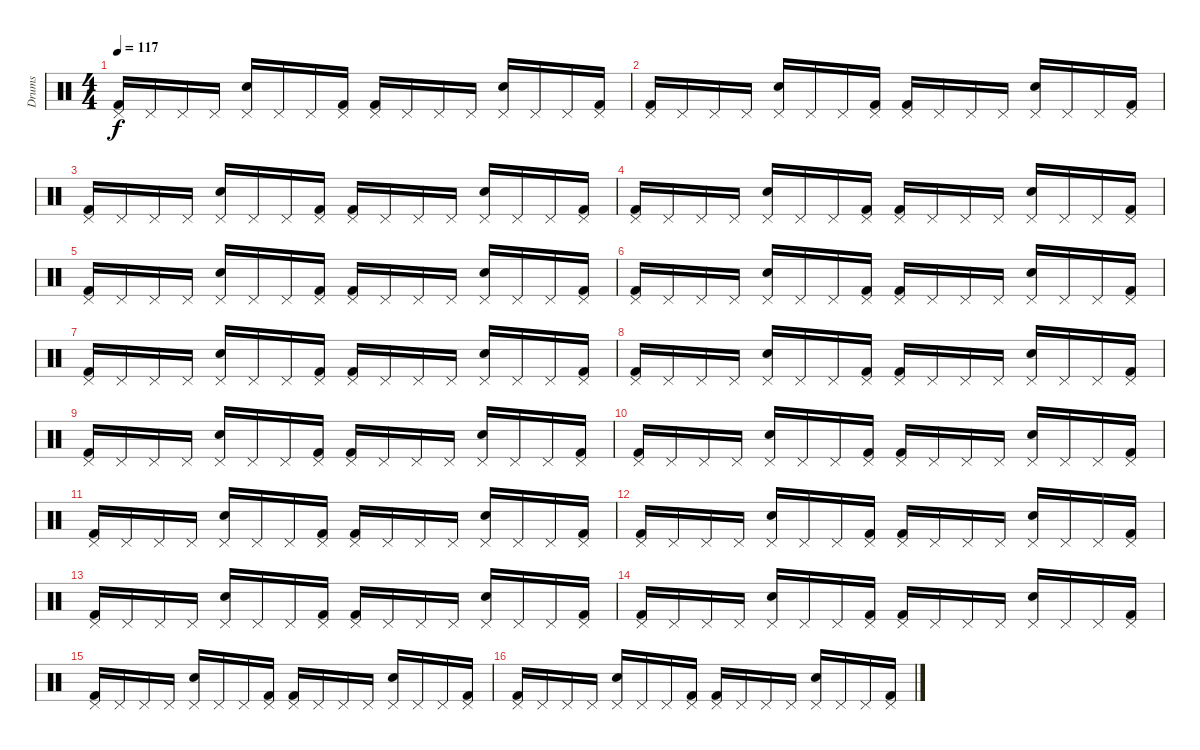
\track ("Drums" "Drums") {instrument percussion}
\staff {score}
\articulation defaults
\ts (4 4)
\tempo 117
\clef neutral
\ks c
("Kick (hit) 2" "Pedal Hi-Hat (hit)").16{dy f} "Pedal Hi-Hat (hit)".16 "Pedal Hi-Hat (hit)".16 "Pedal Hi-Hat (hit)".16 ("Snare (hit) 2" "Pedal Hi-Hat (hit)").16 "Pedal Hi-Hat (hit)".16 "Pedal Hi-Hat (hit)".16 ("Kick (hit) 2" "Pedal Hi-Hat (hit)").16 ("Kick (hit) 2" "Pedal Hi-Hat (hit)").16 "Pedal Hi-Hat (hit)".16 "Pedal Hi-Hat (hit)".16 "Pedal Hi-Hat (hit)".16 ("Snare (hit) 2" "Pedal Hi-Hat (hit)").16 "Pedal Hi-Hat (hit)".16 "Pedal Hi-Hat (hit)".16 ("Kick (hit) 2" "Pedal Hi-Hat (hit)").16 |
("Kick (hit) 2" "Pedal Hi-Hat (hit)").16 "Pedal Hi-Hat (hit)".16 "Pedal Hi-Hat (hit)".16 "Pedal Hi-Hat (hit)".16 ("Snare (hit) 2" "Pedal Hi-Hat (hit)").16 "Pedal Hi-Hat (hit)".16 "Pedal Hi-Hat (hit)".16 ("Kick (hit) 2" "Pedal Hi-Hat (hit)").16 ("Kick (hit) 2" "Pedal Hi-Hat (hit)").16 "Pedal Hi-Hat (hit)".16 "Pedal Hi-Hat (hit)".16 "Pedal Hi-Hat (hit)".16 ("Snare (hit) 2" "Pedal Hi-Hat (hit)").16 "Pedal Hi-Hat (hit)".16 "Pedal Hi-Hat (hit)".16 ("Kick (hit) 2" "Pedal Hi-Hat (hit)").16 |
("Kick (hit) 2" "Pedal Hi-Hat (hit)").16 "Pedal Hi-Hat (hit)".16 "Pedal Hi-Hat (hit)".16 "Pedal Hi-Hat (hit)".16 ("Snare (hit) 2" "Pedal Hi-Hat (hit)").16 "Pedal Hi-Hat (hit)".16 "Pedal Hi-Hat (hit)".16 ("Kick (hit) 2" "Pedal Hi-Hat (hit)").16 ("Kick (hit) 2" "Pedal Hi-Hat (hit)").16 "Pedal Hi-Hat (hit)".16 "Pedal Hi-Hat (hit)".16 "Pedal Hi-Hat (hit)".16 ("Snare (hit) 2" "Pedal Hi-Hat (hit)").16 "Pedal Hi-Hat (hit)".16 "Pedal Hi-Hat (hit)".16 ("Kick (hit) 2" "Pedal Hi-Hat (hit)").16 |
("Kick (hit) 2" "Pedal Hi-Hat (hit)").16 "Pedal Hi-Hat (hit)".16 "Pedal Hi-Hat (hit)".16 "Pedal Hi-Hat (hit)".16 ("Snare (hit) 2" "Pedal Hi-Hat (hit)").16 "Pedal Hi-Hat (hit)".16 "Pedal Hi-Hat (hit)".16 ("Kick (hit) 2" "Pedal Hi-Hat (hit)").16 ("Kick (hit) 2" "Pedal Hi-Hat (hit)").16 "Pedal Hi-Hat (hit)".16 "Pedal Hi-Hat (hit)".16 "Pedal Hi-Hat (hit)".16 ("Snare (hit) 2" "Pedal Hi-Hat (hit)").16 "Pedal Hi-Hat (hit)".16 "Pedal Hi-Hat (hit)".16 ("Kick (hit) 2" "Pedal Hi-Hat (hit)").16 |
("Kick (hit) 2" "Pedal Hi-Hat (hit)").16 "Pedal Hi-Hat (hit)".16 "Pedal Hi-Hat (hit)".16 "Pedal Hi-Hat (hit)".16 ("Snare (hit) 2" "Pedal Hi-Hat (hit)").16 "Pedal Hi-Hat (hit)".16 "Pedal Hi-Hat (hit)".16 ("Kick (hit) 2" "Pedal Hi-Hat (hit)").16 ("Kick (hit) 2" "Pedal Hi-Hat (hit)").16 "Pedal Hi-Hat (hit)".16 "Pedal Hi-Hat (hit)".16 "Pedal Hi-Hat (hit)".16 ("Snare (hit) 2" "Pedal Hi-Hat (hit)").16 "Pedal Hi-Hat (hit)".16 "Pedal Hi-Hat (hit)".16 ("Kick (hit) 2" "Pedal Hi-Hat (hit)").16 |
("Kick (hit) 2" "Pedal Hi-Hat (hit)").16 "Pedal Hi-Hat (hit)".16 "Pedal Hi-Hat (hit)".16 "Pedal Hi-Hat (hit)".16 ("Snare (hit) 2" "Pedal Hi-Hat (hit)").16 "Pedal Hi-Hat (hit)".16 "Pedal Hi-Hat (hit)".16 ("Kick (hit) 2" "Pedal Hi-Hat (hit)").16 ("Kick (hit) 2" "Pedal Hi-Hat (hit)").16 "Pedal Hi-Hat (hit)".16 "Pedal Hi-Hat (hit)".16 "Pedal Hi-Hat (hit)".16 ("Snare (hit) 2" "Pedal Hi-Hat (hit)").16 "Pedal Hi-Hat (hit)".16 "Pedal Hi-Hat (hit)".16 ("Kick (hit) 2" "Pedal Hi-Hat (hit)").16 |
("Kick (hit) 2" "Pedal Hi-Hat (hit)").16 "Pedal Hi-Hat (hit)".16 "Pedal Hi-Hat (hit)".16 "Pedal Hi-Hat (hit)".16 ("Snare (hit) 2" "Pedal Hi-Hat (hit)").16 "Pedal Hi-Hat (hit)".16 "Pedal Hi-Hat (hit)".16 ("Kick (hit) 2" "Pedal Hi-Hat (hit)").16 ("Kick (hit) 2" "Pedal Hi-Hat (hit)").16 "Pedal Hi-Hat (hit)".16 "Pedal Hi-Hat (hit)".16 "Pedal Hi-Hat (hit)".16 ("Snare (hit) 2" "Pedal Hi-Hat (hit)").16 "Pedal Hi-Hat (hit)".16 "Pedal Hi-Hat (hit)".16 ("Kick (hit) 2" "Pedal Hi-Hat (hit)").16 |
("Kick (hit) 2" "Pedal Hi-Hat (hit)").16 "Pedal Hi-Hat (hit)".16 "Pedal Hi-Hat (hit)".16 "Pedal Hi-Hat (hit)".16 ("Snare (hit) 2" "Pedal Hi-Hat (hit)").16 "Pedal Hi-Hat (hit)".16 "Pedal Hi-Hat (hit)".16 ("Kick (hit) 2" "Pedal Hi-Hat (hit)").16 ("Kick (hit) 2" "Pedal Hi-Hat (hit)").16 "Pedal Hi-Hat (hit)".16 "Pedal Hi-Hat (hit)".16 "Pedal Hi-Hat (hit)".16 ("Snare (hit) 2" "Pedal Hi-Hat (hit)").16 "Pedal Hi-Hat (hit)".16 "Pedal Hi-Hat (hit)".16 ("Kick (hit) 2" "Pedal Hi-Hat (hit)").16 |
("Kick (hit) 2" "Pedal Hi-Hat (hit)").16 "Pedal Hi-Hat (hit)".16 "Pedal Hi-Hat (hit)".16 "Pedal Hi-Hat (hit)".16 ("Snare (hit) 2" "Pedal Hi-Hat (hit)").16 "Pedal Hi-Hat (hit)".16 "Pedal Hi-Hat (hit)".16 ("Kick (hit) 2" "Pedal Hi-Hat (hit)").16 ("Kick (hit) 2" "Pedal Hi-Hat (hit)").16 "Pedal Hi-Hat (hit)".16 "Pedal Hi-Hat (hit)".16 "Pedal Hi-Hat (hit)".16 ("Snare (hit) 2" "Pedal Hi-Hat (hit)").16 "Pedal Hi-Hat (hit)".16 "Pedal Hi-Hat (hit)".16 ("Kick (hit) 2" "Pedal Hi-Hat (hit)").16 |
("Kick (hit) 2" "Pedal Hi-Hat (hit)").16 "Pedal Hi-Hat (hit)".16 "Pedal Hi-Hat (hit)".16 "Pedal Hi-Hat (hit)".16 ("Snare (hit) 2" "Pedal Hi-Hat (hit)").16 "Pedal Hi-Hat (hit)".16 "Pedal Hi-Hat (hit)".16 ("Kick (hit) 2" "Pedal Hi-Hat (hit)").16 ("Kick (hit) 2" "Pedal Hi-Hat (hit)").16 "Pedal Hi-Hat (hit)".16 "Pedal Hi-Hat (hit)".16 "Pedal Hi-Hat (hit)".16 ("Snare (hit) 2" "Pedal Hi-Hat (hit)").16 "Pedal Hi-Hat (hit)".16 "Pedal Hi-Hat (hit)".16 ("Kick (hit) 2" "Pedal Hi-Hat (hit)").16 |
("Kick (hit) 2" "Pedal Hi-Hat (hit)").16{volume 13} "Pedal Hi-Hat (hit)".16 "Pedal Hi-Hat (hit)".16 "Pedal Hi-Hat (hit)".16 ("Snare (hit) 2" "Pedal Hi-Hat (hit)").16 "Pedal Hi-Hat (hit)".16 "Pedal Hi-Hat (hit)".16 ("Kick (hit) 2" "Pedal Hi-Hat (hit)").16 ("Kick (hit) 2" "Pedal Hi-Hat (hit)").16 "Pedal Hi-Hat (hit)".16 "Pedal Hi-Hat (hit)".16 "Pedal Hi-Hat (hit)".16 ("Snare (hit) 2" "Pedal Hi-Hat (hit)").16 "Pedal Hi-Hat (hit)".16 "Pedal Hi-Hat (hit)".16 ("Kick (hit) 2" "Pedal Hi-Hat (hit)").16 |
("Kick (hit) 2" "Pedal Hi-Hat (hit)").16 "Pedal Hi-Hat (hit)".16 "Pedal Hi-Hat (hit)".16 "Pedal Hi-Hat (hit)".16 ("Snare (hit) 2" "Pedal Hi-Hat (hit)").16 "Pedal Hi-Hat (hit)".16 "Pedal Hi-Hat (hit)".16 ("Kick (hit) 2" "Pedal Hi-Hat (hit)").16 ("Kick (hit) 2" "Pedal Hi-Hat (hit)").16 "Pedal Hi-Hat (hit)".16 "Pedal Hi-Hat (hit)".16 "Pedal Hi-Hat (hit)".16 ("Snare (hit) 2" "Pedal Hi-Hat (hit)").16 "Pedal Hi-Hat (hit)".16 "Pedal Hi-Hat (hit)".16 ("Kick (hit) 2" "Pedal Hi-Hat (hit)").16 |
("Kick (hit) 2" "Pedal Hi-Hat (hit)").16 "Pedal Hi-Hat (hit)".16 "Pedal Hi-Hat (hit)".16 "Pedal Hi-Hat (hit)".16 ("Snare (hit) 2" "Pedal Hi-Hat (hit)").16 "Pedal Hi-Hat (hit)".16 "Pedal Hi-Hat (hit)".16 ("Kick (hit) 2" "Pedal Hi-Hat (hit)").16 ("Kick (hit) 2" "Pedal Hi-Hat (hit)").16 "Pedal Hi-Hat (hit)".16 "Pedal Hi-Hat (hit)".16 "Pedal Hi-Hat (hit)".16 ("Snare (hit) 2" "Pedal Hi-Hat (hit)").16 "Pedal Hi-Hat (hit)".16 "Pedal Hi-Hat (hit)".16 ("Kick (hit) 2" "Pedal Hi-Hat (hit)").16 |
("Kick (hit) 2" "Pedal Hi-Hat (hit)").16 "Pedal Hi-Hat (hit)".16 "Pedal Hi-Hat (hit)".16 "Pedal Hi-Hat (hit)".16 ("Snare (hit) 2" "Pedal Hi-Hat (hit)").16 "Pedal Hi-Hat (hit)".16 "Pedal Hi-Hat (hit)".16 ("Kick (hit) 2" "Pedal Hi-Hat (hit)").16 ("Kick (hit) 2" "Pedal Hi-Hat (hit)").16 "Pedal Hi-Hat (hit)".16 "Pedal Hi-Hat (hit)".16 "Pedal Hi-Hat (hit)".16 ("Snare (hit) 2" "Pedal Hi-Hat (hit)").16 "Pedal Hi-Hat (hit)".16 "Pedal Hi-Hat (hit)".16 ("Kick (hit) 2" "Pedal Hi-Hat (hit)").16 |
("Kick (hit) 2" "Pedal Hi-Hat (hit)").16 "Pedal Hi-Hat (hit)".16 "Pedal Hi-Hat (hit)".16 "Pedal Hi-Hat (hit)".16 ("Snare (hit) 2" "Pedal Hi-Hat (hit)").16 "Pedal Hi-Hat (hit)".16 "Pedal Hi-Hat (hit)".16 ("Kick (hit) 2" "Pedal Hi-Hat (hit)").16 ("Kick (hit) 2" "Pedal Hi-Hat (hit)").16 "Pedal Hi-Hat (hit)".16 "Pedal Hi-Hat (hit)".16 "Pedal Hi-Hat (hit)".16 ("Snare (hit) 2" "Pedal Hi-Hat (hit)").16 "Pedal Hi-Hat (hit)".16 "Pedal Hi-Hat (hit)".16 ("Kick (hit) 2" "Pedal Hi-Hat (hit)").16 |
("Kick (hit) 2" "Pedal Hi-Hat (hit)").16 "Pedal Hi-Hat (hit)".16 "Pedal Hi-Hat (hit)".16 "Pedal Hi-Hat (hit)".16 ("Snare (hit) 2" "Pedal Hi-Hat (hit)").16 "Pedal Hi-Hat (hit)".16 "Pedal Hi-Hat (hit)".16 ("Kick (hit) 2" "Pedal Hi-Hat (hit)").16 ("Kick (hit) 2" "Pedal Hi-Hat (hit)").16 "Pedal Hi-Hat (hit)".16 "Pedal Hi-Hat (hit)".16 "Pedal Hi-Hat (hit)".16 ("Snare (hit) 2" "Pedal Hi-Hat (hit)").16 "Pedal Hi-Hat (hit)".16 "Pedal Hi-Hat (hit)".16 ("Kick (hit) 2" "Pedal Hi-Hat (hit)").16
